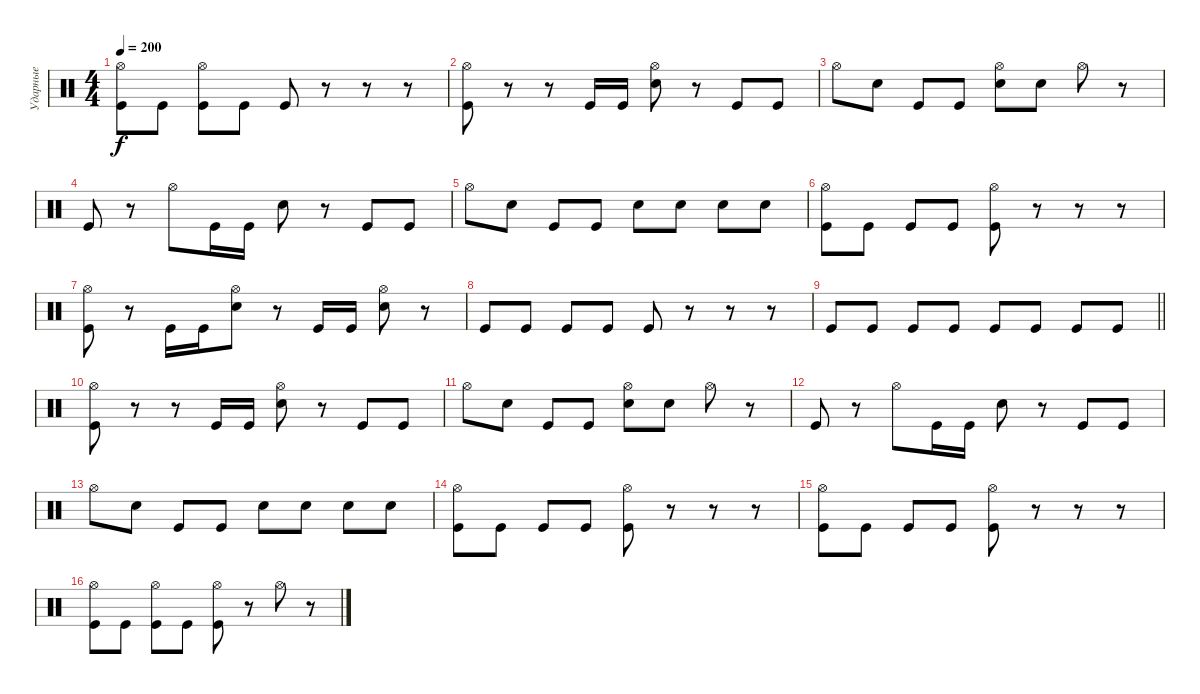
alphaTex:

\track ("Ударные" "Ударные") {instrument percussion}
\staff {score}
\articulation defaults
\ts (4 4)
\tempo 200
\clef neutral
\ks c
("Hi-Hat (open)" "Kick (hit)").8{dy f} "Kick (hit)".8 ("Hi-Hat (open)" "Kick (hit)").8 "Kick (hit)".8 "Kick (hit)".8 r.8 r.8 r.8 |
("Hi-Hat (open)" "Kick (hit)").8 r.8 r.8 "Kick (hit)".16 "Kick (hit)".16 ("Hi-Hat (open)" "Snare (hit) 2").8 r.8 "Kick (hit)".8 "Kick (hit)".8 |
"Hi-Hat (open)".8 "Snare (hit) 2".8 "Kick (hit)".8 "Kick (hit)".8 ("Hi-Hat (open)" "Snare (hit) 2").8 "Snare (hit) 2".8 "Hi-Hat (open)".8 r.8 |
"Kick (hit)".8 r.8 "Hi-Hat (open)".8 "Kick (hit)".16 "Kick (hit)".16 "Snare (hit) 2".8 r.8 "Kick (hit)".8 "Kick (hit)".8 |
"Hi-Hat (open)".8 "Snare (hit) 2".8 "Kick (hit)".8 "Kick (hit)".8 "Snare (hit) 2".8 "Snare (hit) 2".8 "Snare (hit) 2".8 "Snare (hit) 2".8 |
("Hi-Hat (open)" "Kick (hit)").8 "Kick (hit)".8 "Kick (hit)".8 "Kick (hit)".8 ("Hi-Hat (open)" "Kick (hit)").8 r.8 r.8 r.8 |
("Hi-Hat (open)" "Kick (hit)").8 r.8 "Kick (hit)".16 "Kick (hit)".16 ("Hi-Hat (open)" "Snare (hit) 2").8 r.8 "Kick (hit)".16 "Kick (hit)".16 ("Hi-Hat (open)" "Snare (hit) 2").8 r.8 |
"Kick (hit)".8 "Kick (hit)".8 "Kick (hit)".8 "Kick (hit)".8 "Kick (hit)".8 r.8 r.8 r.8 |
\barLineRight lightlight "Kick (hit)".8 "Kick (hit)".8 "Kick (hit)".8 "Kick (hit)".8 "Kick (hit)".8 "Kick (hit)".8 "Kick (hit)".8 "Kick (hit)".8
|
("Hi-Hat (open)" "Kick (hit)").8 r.8 r.8 "Kick (hit)".16 "Kick (hit)".16 ("Hi-Hat (open)" "Snare (hit) 2").8 r.8 "Kick (hit)".8 "Kick (hit)".8 |
"Hi-Hat (open)".8 "Snare (hit) 2".8 "Kick (hit)".8 "Kick (hit)".8 ("Hi-Hat (open)" "Snare (hit) 2").8 "Snare (hit) 2".8 "Hi-Hat (open)".8 r.8 |
"Kick (hit)".8 r.8 "Hi-Hat (open)".8 "Kick (hit)".16 "Kick (hit)".16 "Snare (hit) 2".8 r.8 "Kick (hit)".8 "Kick (hit)".8 |
"Hi-Hat (open)".8 "Snare (hit) 2".8 "Kick (hit)".8 "Kick (hit)".8 "Snare (hit) 2".8 "Snare (hit) 2".8 "Snare (hit) 2".8 "Snare (hit) 2".8 |
("Hi-Hat (open)" "Kick (hit)").8 "Kick (hit)".8 "Kick (hit)".8 "Kick (hit)".8 ("Hi-Hat (open)" "Kick (hit)").8 r.8 r.8 r.8 |
("Hi-Hat (open)" "Kick (hit)").8 "Kick (hit)".8 "Kick (hit)".8 "Kick (hit)".8 ("Hi-Hat (open)" "Kick (hit)").8 r.8 r.8 r.8 |
("Hi-Hat (open)" "Kick (hit)").8 "Kick (hit)".8 ("Hi-Hat (open)" "Kick (hit)").8 "Kick (hit)".8 ("Hi-Hat (open)" "Kick (hit)").8 r.8 "Hi-Hat (open)".8 r.8
